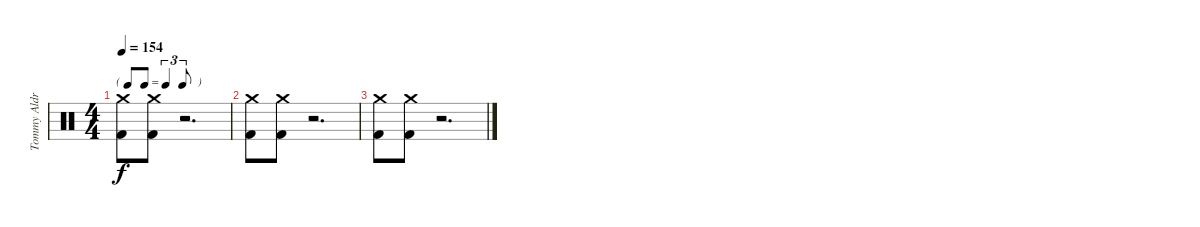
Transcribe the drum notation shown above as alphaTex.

\track ("Tommy Aldridge (Drums)" "Tommy Aldr") {instrument percussion}
\staff {score}
\articulation defaults
\ts (4 4)
\tf triplet8th
\tempo 154
\clef neutral
\ks c
("Crash medium (hit)" "Kick (hit) 2").8{dy f} ("Crash medium (hit)" "Kick (hit) 2").8 r.2{d} |
("Crash medium (hit)" "Kick (hit) 2").8 ("Crash medium (hit)" "Kick (hit) 2").8 r.2{d} |
("Crash medium (hit)" "Kick (hit) 2").8 ("Crash medium (hit)" "Kick (hit) 2").8 r.2{d}
